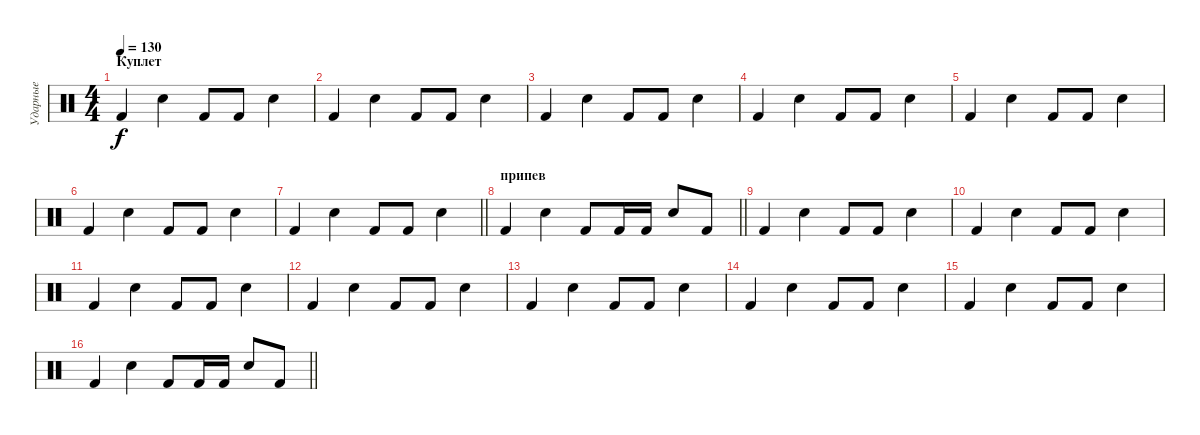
\track ("Ударные" "Ударные") {instrument percussion}
\staff {score}
\articulation defaults
\ts (4 4)
\section ("" "Куплет")
\tempo 130
\clef neutral
\ks c "Kick (hit) 2".4{dy f} "Electric Snare (hit)".4 "Kick (hit) 2".8 "Kick (hit) 2".8 "Electric Snare (hit)".4
|
"Kick (hit) 2".4 "Electric Snare (hit)".4 "Kick (hit) 2".8 "Kick (hit) 2".8 "Electric Snare (hit)".4 |
"Kick (hit) 2".4 "Electric Snare (hit)".4 "Kick (hit) 2".8 "Kick (hit) 2".8 "Electric Snare (hit)".4 |
"Kick (hit) 2".4 "Electric Snare (hit)".4 "Kick (hit) 2".8 "Kick (hit) 2".8 "Electric Snare (hit)".4 |
"Kick (hit) 2".4 "Electric Snare (hit)".4 "Kick (hit) 2".8 "Kick (hit) 2".8 "Electric Snare (hit)".4 |
"Kick (hit) 2".4 "Electric Snare (hit)".4 "Kick (hit) 2".8 "Kick (hit) 2".8 "Electric Snare (hit)".4 |
\barLineRight lightlight "Kick (hit) 2".4 "Electric Snare (hit)".4 "Kick (hit) 2".8 "Kick (hit) 2".8 "Electric Snare (hit)".4
|
\section ("" "припев")
\barLineRight lightlight "Kick (hit) 2".4 "Electric Snare (hit)".4 "Kick (hit) 2".8 "Kick (hit) 2".16 "Kick (hit) 2".16 "Electric Snare (hit)".8 "Kick (hit) 2".8
|
"Kick (hit) 2".4 "Electric Snare (hit)".4 "Kick (hit) 2".8 "Kick (hit) 2".8 "Electric Snare (hit)".4 |
"Kick (hit) 2".4 "Electric Snare (hit)".4 "Kick (hit) 2".8 "Kick (hit) 2".8 "Electric Snare (hit)".4 |
"Kick (hit) 2".4 "Electric Snare (hit)".4 "Kick (hit) 2".8 "Kick (hit) 2".8 "Electric Snare (hit)".4 |
"Kick (hit) 2".4 "Electric Snare (hit)".4 "Kick (hit) 2".8 "Kick (hit) 2".8 "Electric Snare (hit)".4 |
"Kick (hit) 2".4 "Electric Snare (hit)".4 "Kick (hit) 2".8 "Kick (hit) 2".8 "Electric Snare (hit)".4 |
"Kick (hit) 2".4 "Electric Snare (hit)".4 "Kick (hit) 2".8 "Kick (hit) 2".8 "Electric Snare (hit)".4 |
"Kick (hit) 2".4 "Electric Snare (hit)".4 "Kick (hit) 2".8 "Kick (hit) 2".8 "Electric Snare (hit)".4 |
\barLineRight lightlight "Kick (hit) 2".4 "Electric Snare (hit)".4 "Kick (hit) 2".8 "Kick (hit) 2".16 "Kick (hit) 2".16 "Electric Snare (hit)".8 "Kick (hit) 2".8
